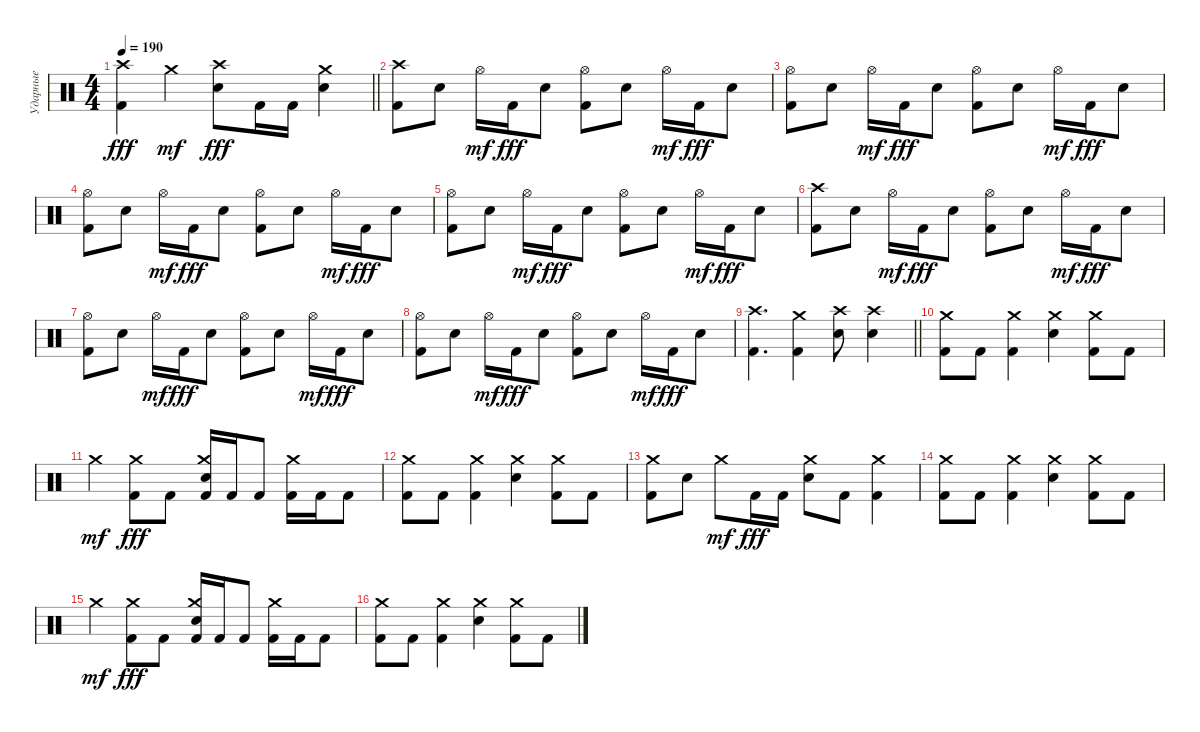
\track ("Ударные" "Ударные") {instrument percussion}
\staff {score}
\articulation defaults
\ts (4 4)
\tempo 190
\clef neutral
\barLineRight lightlight
\ks c
("Crash high (hit)" "Kick (hit) 2").4{dy fff} "Crash medium (hit)".4{dy mf} ("Crash high (hit)" "Electric Snare (hit)").8{dy fff} "Kick (hit) 2".16 "Kick (hit) 2".16 ("Crash medium (hit)" "Electric Snare (hit)").4 |
\section ("" "")
("Crash high (hit)" "Kick (hit) 2").8 "Electric Snare (hit)".8 "Hi-Hat (open)".16{dy mf} "Kick (hit) 2".16{dy fff} "Electric Snare (hit)".8 ("Hi-Hat (open)" "Kick (hit) 2").8 "Electric Snare (hit)".8 "Hi-Hat (open)".16{dy mf} "Kick (hit) 2".16{dy fff} "Electric Snare (hit)".8 |
("Hi-Hat (open)" "Kick (hit) 2").8 "Electric Snare (hit)".8 "Hi-Hat (open)".16{dy mf} "Kick (hit) 2".16{dy fff} "Electric Snare (hit)".8 ("Hi-Hat (open)" "Kick (hit) 2").8 "Electric Snare (hit)".8 "Hi-Hat (open)".16{dy mf} "Kick (hit) 2".16{dy fff} "Electric Snare (hit)".8 |
("Hi-Hat (open)" "Kick (hit) 2").8 "Electric Snare (hit)".8 "Hi-Hat (open)".16{dy mf} "Kick (hit) 2".16{dy fff} "Electric Snare (hit)".8 ("Hi-Hat (open)" "Kick (hit) 2").8 "Electric Snare (hit)".8 "Hi-Hat (open)".16{dy mf} "Kick (hit) 2".16{dy fff} "Electric Snare (hit)".8 |
("Hi-Hat (open)" "Kick (hit) 2").8 "Electric Snare (hit)".8 "Hi-Hat (open)".16{dy mf} "Kick (hit) 2".16{dy fff} "Electric Snare (hit)".8 ("Hi-Hat (open)" "Kick (hit) 2").8 "Electric Snare (hit)".8 "Hi-Hat (open)".16{dy mf} "Kick (hit) 2".16{dy fff} "Electric Snare (hit)".8 |
("Crash high (hit)" "Kick (hit) 2").8 "Electric Snare (hit)".8 "Hi-Hat (open)".16{dy mf} "Kick (hit) 2".16{dy fff} "Electric Snare (hit)".8 ("Hi-Hat (open)" "Kick (hit) 2").8 "Electric Snare (hit)".8 "Hi-Hat (open)".16{dy mf} "Kick (hit) 2".16{dy fff} "Electric Snare (hit)".8 |
("Hi-Hat (open)" "Kick (hit) 2").8 "Electric Snare (hit)".8 "Hi-Hat (open)".16{dy mf} "Kick (hit) 2".16{dy fff} "Electric Snare (hit)".8 ("Hi-Hat (open)" "Kick (hit) 2").8 "Electric Snare (hit)".8 "Hi-Hat (open)".16{dy mf} "Kick (hit) 2".16{dy fff} "Electric Snare (hit)".8 |
("Hi-Hat (open)" "Kick (hit) 2").8 "Electric Snare (hit)".8 "Hi-Hat (open)".16{dy mf} "Kick (hit) 2".16{dy fff} "Electric Snare (hit)".8 ("Hi-Hat (open)" "Kick (hit) 2").8 "Electric Snare (hit)".8 "Hi-Hat (open)".16{dy mf} "Kick (hit) 2".16{dy fff} "Electric Snare (hit)".8 |
\barLineRight lightlight
("Crash high (hit)" "Kick (hit) 2").4{d} ("Crash medium (hit)" "Kick (hit) 2").4 ("Crash high (hit)" "Electric Snare (hit)").8 ("Crash high (hit)" "Electric Snare (hit)").4 |
("Crash medium (hit)" "Kick (hit) 2").8 "Kick (hit) 2".8 ("Crash medium (hit)" "Kick (hit) 2").4 ("Crash medium (hit)" "Electric Snare (hit)").4 ("Crash medium (hit)" "Kick (hit) 2").8 "Kick (hit) 2".8 |
"Crash medium (hit)".4{dy mf} ("Crash medium (hit)" "Kick (hit) 2").8{dy fff} "Kick (hit) 2".8 ("Crash medium (hit)" "Electric Snare (hit)" "Kick (hit) 2").16 "Kick (hit) 2".16 "Kick (hit) 2".8 ("Crash medium (hit)" "Kick (hit) 2").16 "Kick (hit) 2".16 "Kick (hit) 2".8 |
("Crash medium (hit)" "Kick (hit) 2").8 "Kick (hit) 2".8 ("Crash medium (hit)" "Kick (hit) 2").4 ("Crash medium (hit)" "Electric Snare (hit)").4 ("Crash medium (hit)" "Kick (hit) 2").8 "Kick (hit) 2".8 |
("Crash medium (hit)" "Kick (hit) 2").8 "Electric Snare (hit)".8 "Crash medium (hit)".8{dy mf} "Kick (hit) 2".16{dy fff} "Kick (hit) 2".16 ("Crash medium (hit)" "Electric Snare (hit)").8 "Kick (hit) 2".8 ("Crash medium (hit)" "Kick (hit) 2").4 |
("Crash medium (hit)" "Kick (hit) 2").8 "Kick (hit) 2".8 ("Crash medium (hit)" "Kick (hit) 2").4 ("Crash medium (hit)" "Electric Snare (hit)").4 ("Crash medium (hit)" "Kick (hit) 2").8 "Kick (hit) 2".8 |
"Crash medium (hit)".4{dy mf} ("Crash medium (hit)" "Kick (hit) 2").8{dy fff} "Kick (hit) 2".8 ("Crash medium (hit)" "Electric Snare (hit)" "Kick (hit) 2").16 "Kick (hit) 2".16 "Kick (hit) 2".8 ("Crash medium (hit)" "Kick (hit) 2").16 "Kick (hit) 2".16 "Kick (hit) 2".8 |
("Crash medium (hit)" "Kick (hit) 2").8 "Kick (hit) 2".8 ("Crash medium (hit)" "Kick (hit) 2").4 ("Crash medium (hit)" "Electric Snare (hit)").4 ("Crash medium (hit)" "Kick (hit) 2").8 "Kick (hit) 2".8
